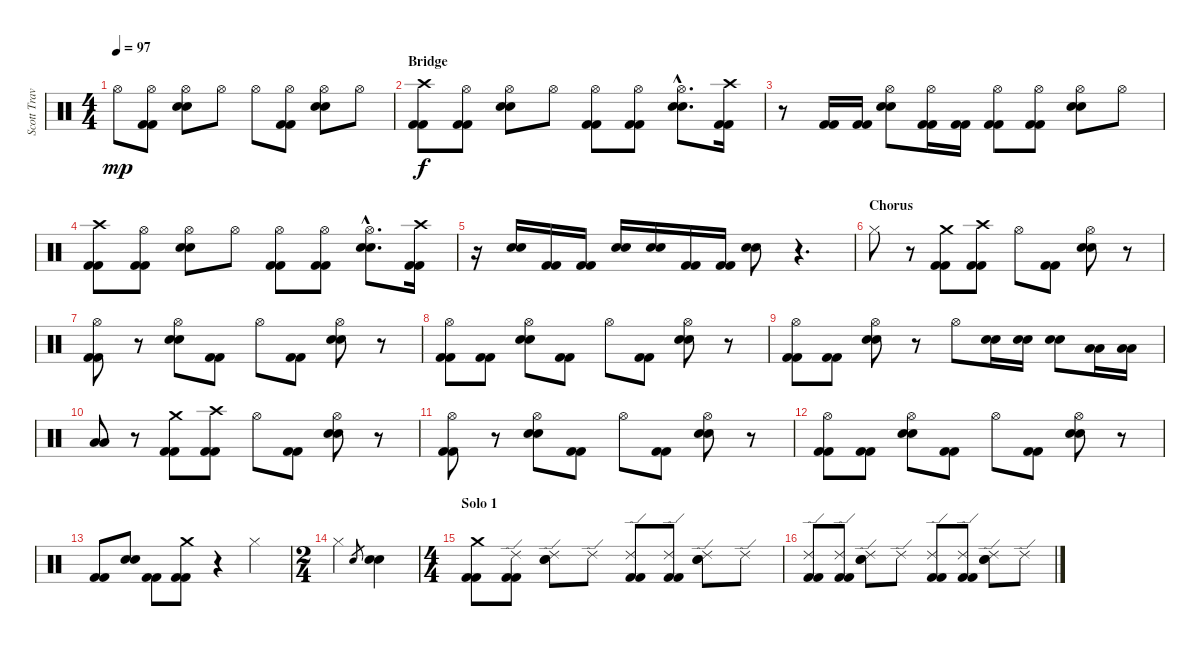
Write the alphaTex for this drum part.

\track ("Scott Travis" "Scott Trav") {instrument percussion}
\staff {score}
\articulation defaults
\ts (4 4)
\tempo 97
\clef neutral
\ks c "Hi-Hat (open)".8{dy mp}
("Hi-Hat (open)" "Kick (hit) 2" "Kick (hit) 2").8 ("Hi-Hat (open)" "Snare (hit) 2" "Snare (hit) 2").8 "Hi-Hat (open)".8 "Hi-Hat (open)".8 ("Hi-Hat (open)" "Kick (hit) 2" "Kick (hit) 2").8 ("Hi-Hat (open)" "Snare (hit) 2" "Snare (hit) 2").8 "Hi-Hat (open)".8 |
\section ("" "Bridge")
("Crash high (hit)" "Kick (hit) 2" "Kick (hit) 2").8{dy f} ("Hi-Hat (open)" "Kick (hit) 2" "Kick (hit) 2").8 ("Hi-Hat (open)" "Snare (hit) 2" "Snare (hit) 2").8 "Hi-Hat (open)".8 ("Hi-Hat (open)" "Kick (hit) 2" "Kick (hit) 2").8 ("Hi-Hat (open)" "Kick (hit) 2" "Kick (hit) 2").8 ("Hi-Hat (open)"{hac} "Snare (hit) 2"{hac} "Snare (hit) 2"{hac}).8{d} ("Crash high (hit)" "Kick (hit) 2" "Kick (hit) 2").16 |
r.8 ("Kick (hit) 2" "Kick (hit) 2").16 ("Kick (hit) 2" "Kick (hit) 2").16 ("Hi-Hat (open)" "Snare (hit) 2" "Snare (hit) 2").8 ("Hi-Hat (open)" "Kick (hit) 2" "Kick (hit) 2").16 ("Kick (hit) 2" "Kick (hit) 2").16 ("Hi-Hat (open)" "Kick (hit) 2" "Kick (hit) 2").8 ("Hi-Hat (open)" "Kick (hit) 2" "Kick (hit) 2").8 ("Hi-Hat (open)" "Snare (hit) 2" "Snare (hit) 2").8 "Hi-Hat (open)".8 |
("Crash high (hit)" "Kick (hit) 2" "Kick (hit) 2").8 ("Hi-Hat (open)" "Kick (hit) 2" "Kick (hit) 2").8 ("Hi-Hat (open)" "Snare (hit) 2" "Snare (hit) 2").8 "Hi-Hat (open)".8 ("Hi-Hat (open)" "Kick (hit) 2" "Kick (hit) 2").8 ("Hi-Hat (open)" "Kick (hit) 2" "Kick (hit) 2").8 ("Hi-Hat (open)"{hac} "Snare (hit) 2"{hac} "Snare (hit) 2"{hac}).8{d} ("Crash high (hit)" "Kick (hit) 2" "Kick (hit) 2").16 |
r.16 ("Snare (hit) 2" "Snare (hit) 2").16 ("Kick (hit) 2" "Kick (hit) 2").16 ("Kick (hit) 2" "Kick (hit) 2").16 ("Snare (hit) 2" "Snare (hit) 2").16 ("Snare (hit) 2" "Snare (hit) 2").16 ("Kick (hit) 2" "Kick (hit) 2").16 ("Kick (hit) 2" "Kick (hit) 2").16 ("Snare (hit) 2" "Snare (hit) 2").8 r.4{d} |
\section ("" "Chorus")
"Hi-Hat (closed)".8 r.8 ("Crash medium (hit)" "Kick (hit) 2" "Kick (hit) 2").8 ("Crash high (hit)" "Kick (hit) 2" "Kick (hit) 2").8 "Hi-Hat (open)".8 ("Kick (hit) 2" "Kick (hit) 2").8 ("Hi-Hat (open)" "Snare (hit) 2" "Snare (hit) 2").8 r.8 |
("Hi-Hat (open)" "Kick (hit) 2" "Kick (hit) 2").8 r.8 ("Hi-Hat (open)" "Snare (hit) 2" "Snare (hit) 2").8 ("Kick (hit) 2" "Kick (hit) 2").8 "Hi-Hat (open)".8 ("Kick (hit) 2" "Kick (hit) 2").8 ("Hi-Hat (open)" "Snare (hit) 2" "Snare (hit) 2").8 r.8 |
("Hi-Hat (open)" "Kick (hit) 2" "Kick (hit) 2").8 ("Kick (hit) 2" "Kick (hit) 2").8 ("Hi-Hat (open)" "Snare (hit) 2" "Snare (hit) 2").8 ("Kick (hit) 2" "Kick (hit) 2").8 "Hi-Hat (open)".8 ("Kick (hit) 2" "Kick (hit) 2").8 ("Hi-Hat (open)" "Snare (hit) 2" "Snare (hit) 2").8 r.8 |
("Hi-Hat (open)" "Kick (hit) 2" "Kick (hit) 2").8 ("Kick (hit) 2" "Kick (hit) 2").8 ("Hi-Hat (open)" "Snare (hit) 2" "Snare (hit) 2").8 r.8 "Hi-Hat (open)".8 ("Snare (hit) 2" "Snare (hit) 2").16 ("Snare (hit) 2" "Snare (hit) 2").16 ("Snare (hit) 2" "Snare (hit) 2").8 ("Low Tom (hit)" "Low Tom (hit)").16 ("Low Tom (hit)" "Low Tom (hit)").16 |
("Low Tom (hit)" "Low Tom (hit)").8 r.8 ("Crash medium (hit)" "Kick (hit) 2" "Kick (hit) 2").8 ("Crash high (hit)" "Kick (hit) 2" "Kick (hit) 2").8 "Hi-Hat (open)".8 ("Kick (hit) 2" "Kick (hit) 2").8 ("Hi-Hat (open)" "Snare (hit) 2" "Snare (hit) 2").8 r.8 |
("Hi-Hat (open)" "Kick (hit) 2" "Kick (hit) 2").8 r.8 ("Hi-Hat (open)" "Snare (hit) 2" "Snare (hit) 2").8 ("Kick (hit) 2" "Kick (hit) 2").8 "Hi-Hat (open)".8 ("Kick (hit) 2" "Kick (hit) 2").8 ("Hi-Hat (open)" "Snare (hit) 2" "Snare (hit) 2").8 r.8 |
("Hi-Hat (open)" "Kick (hit) 2" "Kick (hit) 2").8 ("Kick (hit) 2" "Kick (hit) 2").8 ("Hi-Hat (open)" "Snare (hit) 2" "Snare (hit) 2").8 ("Kick (hit) 2" "Kick (hit) 2").8 "Hi-Hat (open)".8 ("Kick (hit) 2" "Kick (hit) 2").8 ("Hi-Hat (open)" "Snare (hit) 2" "Snare (hit) 2").8 r.8 |
("Kick (hit) 2" "Kick (hit) 2").8 ("Snare (hit) 2" "Snare (hit) 2").8 ("Kick (hit) 2" "Kick (hit) 2").8 ("Crash medium (hit)" "Kick (hit) 2" "Kick (hit) 2").8 r.4 "Hi-Hat (closed)".4 |
\ts (2 4)
"Hi-Hat (closed)".4 "Snare (hit) 2".8{gr} ("Snare (hit) 2" "Snare (hit) 2").4 |
\ts (4 4)
\section ("" "Solo 1")
("Crash medium (hit)" "Kick (hit) 2" "Kick (hit) 2").8 ("Ride (edge) 2" "Kick (hit) 2" "Kick (hit) 2").8 ("Ride (edge) 2" "Snare (hit) 2" "Snare (hit) 2").8 "Ride (edge) 2".8 ("Ride (edge) 2" "Kick (hit) 2" "Kick (hit) 2").8 ("Ride (edge) 2" "Kick (hit) 2" "Kick (hit) 2").8 ("Ride (edge) 2" "Snare (hit) 2" "Snare (hit) 2").8 "Ride (edge) 2".8 |
("Ride (edge) 2" "Kick (hit) 2" "Kick (hit) 2").8 ("Ride (edge) 2" "Kick (hit) 2" "Kick (hit) 2").8 ("Ride (edge) 2" "Snare (hit) 2" "Snare (hit) 2").8 "Ride (edge) 2".8 ("Ride (edge) 2" "Kick (hit) 2" "Kick (hit) 2").8 ("Ride (edge) 2" "Kick (hit) 2" "Kick (hit) 2").8 ("Ride (edge) 2" "Snare (hit) 2" "Snare (hit) 2").8 "Ride (edge) 2".8
